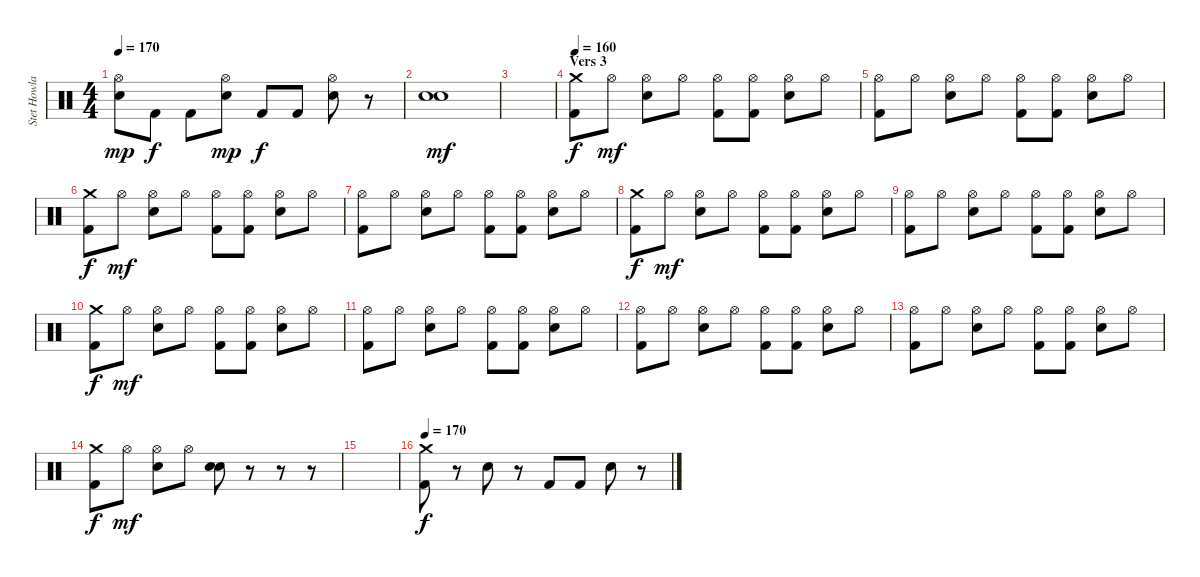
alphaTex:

\track ("Stet Howland" "Stet Howla") {instrument percussion}
\staff {score}
\articulation defaults
\ts (4 4)
\tempo 170
\clef neutral
\ks c
("Hi-Hat (open)" "Electric Snare (hit)").8{dy mp} "Kick (hit) 2".8{dy f} "Kick (hit) 2".8 ("Hi-Hat (open)" "Electric Snare (hit)").8{dy mp} "Kick (hit) 2".8{dy f} "Kick (hit) 2".8 ("Hi-Hat (open)" "Electric Snare (hit)").8 r.8 |
("Electric Snare (hit)" "Electric Snare (hit)").1{dy mf} |
|
\section ("" "Vers 3")
\tempo 160
("Crash medium (hit)" "Kick (hit) 2").8{dy f} "Hi-Hat (open)".8{dy mf} ("Hi-Hat (open)" "Electric Snare (hit)").8 "Hi-Hat (open)".8 ("Hi-Hat (open)" "Kick (hit) 2").8 ("Hi-Hat (open)" "Kick (hit) 2").8 ("Hi-Hat (open)" "Electric Snare (hit)").8 "Hi-Hat (open)".8 |
("Hi-Hat (open)" "Kick (hit) 2").8 "Hi-Hat (open)".8 ("Hi-Hat (open)" "Electric Snare (hit)").8 "Hi-Hat (open)".8 ("Hi-Hat (open)" "Kick (hit) 2").8 ("Hi-Hat (open)" "Kick (hit) 2").8 ("Hi-Hat (open)" "Electric Snare (hit)").8 "Hi-Hat (open)".8 |
("Crash medium (hit)" "Kick (hit) 2").8{dy f} "Hi-Hat (open)".8{dy mf} ("Hi-Hat (open)" "Electric Snare (hit)").8 "Hi-Hat (open)".8 ("Hi-Hat (open)" "Kick (hit) 2").8 ("Hi-Hat (open)" "Kick (hit) 2").8 ("Hi-Hat (open)" "Electric Snare (hit)").8 "Hi-Hat (open)".8 |
("Hi-Hat (open)" "Kick (hit) 2").8 "Hi-Hat (open)".8 ("Hi-Hat (open)" "Electric Snare (hit)").8 "Hi-Hat (open)".8 ("Hi-Hat (open)" "Kick (hit) 2").8 ("Hi-Hat (open)" "Kick (hit) 2").8 ("Hi-Hat (open)" "Electric Snare (hit)").8 "Hi-Hat (open)".8 |
("Crash medium (hit)" "Kick (hit) 2").8{dy f} "Hi-Hat (open)".8{dy mf} ("Hi-Hat (open)" "Electric Snare (hit)").8 "Hi-Hat (open)".8 ("Hi-Hat (open)" "Kick (hit) 2").8 ("Hi-Hat (open)" "Kick (hit) 2").8 ("Hi-Hat (open)" "Electric Snare (hit)").8 "Hi-Hat (open)".8 |
("Hi-Hat (open)" "Kick (hit) 2").8 "Hi-Hat (open)".8 ("Hi-Hat (open)" "Electric Snare (hit)").8 "Hi-Hat (open)".8 ("Hi-Hat (open)" "Kick (hit) 2").8 ("Hi-Hat (open)" "Kick (hit) 2").8 ("Hi-Hat (open)" "Electric Snare (hit)").8 "Hi-Hat (open)".8 |
("Crash medium (hit)" "Kick (hit) 2").8{dy f} "Hi-Hat (open)".8{dy mf} ("Hi-Hat (open)" "Electric Snare (hit)").8 "Hi-Hat (open)".8 ("Hi-Hat (open)" "Kick (hit) 2").8 ("Hi-Hat (open)" "Kick (hit) 2").8 ("Hi-Hat (open)" "Electric Snare (hit)").8 "Hi-Hat (open)".8 |
("Hi-Hat (open)" "Kick (hit) 2").8 "Hi-Hat (open)".8 ("Hi-Hat (open)" "Electric Snare (hit)").8 "Hi-Hat (open)".8 ("Hi-Hat (open)" "Kick (hit) 2").8 ("Hi-Hat (open)" "Kick (hit) 2").8 ("Hi-Hat (open)" "Electric Snare (hit)").8 "Hi-Hat (open)".8 |
("Hi-Hat (open)" "Kick (hit) 2").8 "Hi-Hat (open)".8 ("Hi-Hat (open)" "Electric Snare (hit)").8 "Hi-Hat (open)".8 ("Hi-Hat (open)" "Kick (hit) 2").8 ("Hi-Hat (open)" "Kick (hit) 2").8 ("Hi-Hat (open)" "Electric Snare (hit)").8 "Hi-Hat (open)".8 |
("Hi-Hat (open)" "Kick (hit) 2").8 "Hi-Hat (open)".8 ("Hi-Hat (open)" "Electric Snare (hit)").8 "Hi-Hat (open)".8 ("Hi-Hat (open)" "Kick (hit) 2").8 ("Hi-Hat (open)" "Kick (hit) 2").8 ("Hi-Hat (open)" "Electric Snare (hit)").8 "Hi-Hat (open)".8 |
("Crash medium (hit)" "Kick (hit) 2").8{dy f} "Hi-Hat (open)".8{dy mf} ("Hi-Hat (open)" "Electric Snare (hit)").8 "Hi-Hat (open)".8 ("Electric Snare (hit)" "Electric Snare (hit)").8 r.8 r.8 r.8 |
|
\tempo 170
("Crash medium (hit)" "Kick (hit) 2").8{dy f} r.8 "Electric Snare (hit)".8 r.8 "Kick (hit) 2".8 "Kick (hit) 2".8 "Electric Snare (hit)".8 r.8
